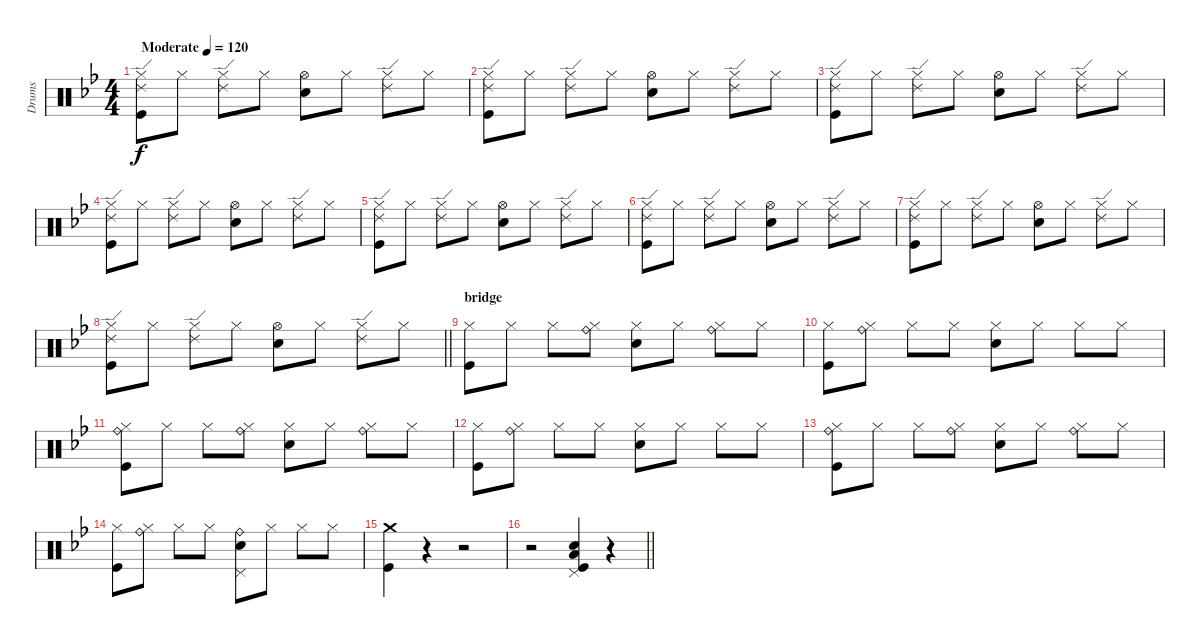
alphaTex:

\track ("Drums" "Drums") {instrument percussion}
\staff {score}
\articulation defaults
\ts (4 4)
\tempo (120 "Moderate")
\tempo 160
\tempo (120 "Moderate")
\clef neutral
\ks gminor
("Hi-Hat (closed)" "Ride (edge) 2" "Kick (hit)").8{dy f} "Hi-Hat (closed)".8 ("Hi-Hat (closed)" "Ride (edge) 2").8 "Hi-Hat (closed)".8 ("Hi-Hat (open)" "Electric Snare (hit)").8 "Hi-Hat (closed)".8 ("Hi-Hat (closed)" "Ride (edge) 2").8 "Hi-Hat (closed)".8 |
("Hi-Hat (closed)" "Ride (edge) 2" "Kick (hit)").8 "Hi-Hat (closed)".8 ("Hi-Hat (closed)" "Ride (edge) 2").8 "Hi-Hat (closed)".8 ("Hi-Hat (open)" "Electric Snare (hit)").8 "Hi-Hat (closed)".8 ("Hi-Hat (closed)" "Ride (edge) 2").8 "Hi-Hat (closed)".8 |
("Hi-Hat (closed)" "Ride (edge) 2" "Kick (hit)").8 "Hi-Hat (closed)".8 ("Hi-Hat (closed)" "Ride (edge) 2").8 "Hi-Hat (closed)".8 ("Hi-Hat (open)" "Electric Snare (hit)").8 "Hi-Hat (closed)".8 ("Hi-Hat (closed)" "Ride (edge) 2").8 "Hi-Hat (closed)".8 |
("Hi-Hat (closed)" "Ride (edge) 2" "Kick (hit)").8 "Hi-Hat (closed)".8 ("Hi-Hat (closed)" "Ride (edge) 2").8 "Hi-Hat (closed)".8 ("Hi-Hat (open)" "Electric Snare (hit)").8 "Hi-Hat (closed)".8 ("Hi-Hat (closed)" "Ride (edge) 2").8 "Hi-Hat (closed)".8 |
("Hi-Hat (closed)" "Ride (edge) 2" "Kick (hit)").8 "Hi-Hat (closed)".8 ("Hi-Hat (closed)" "Ride (edge) 2").8 "Hi-Hat (closed)".8 ("Hi-Hat (open)" "Electric Snare (hit)").8 "Hi-Hat (closed)".8 ("Hi-Hat (closed)" "Ride (edge) 2").8 "Hi-Hat (closed)".8 |
("Hi-Hat (closed)" "Ride (edge) 2" "Kick (hit)").8 "Hi-Hat (closed)".8 ("Hi-Hat (closed)" "Ride (edge) 2").8 "Hi-Hat (closed)".8 ("Hi-Hat (open)" "Electric Snare (hit)").8 "Hi-Hat (closed)".8 ("Hi-Hat (closed)" "Ride (edge) 2").8 "Hi-Hat (closed)".8 |
("Hi-Hat (closed)" "Ride (edge) 2" "Kick (hit)").8 "Hi-Hat (closed)".8 ("Hi-Hat (closed)" "Ride (edge) 2").8 "Hi-Hat (closed)".8 ("Hi-Hat (open)" "Electric Snare (hit)").8 "Hi-Hat (closed)".8 ("Hi-Hat (closed)" "Ride (edge) 2").8 "Hi-Hat (closed)".8 |
\barLineRight lightlight
("Hi-Hat (closed)" "Ride (edge) 2" "Kick (hit)").8 "Hi-Hat (closed)".8 ("Hi-Hat (closed)" "Ride (edge) 2").8 "Hi-Hat (closed)".8 ("Hi-Hat (open)" "Electric Snare (hit)").8 "Hi-Hat (closed)".8 ("Hi-Hat (closed)" "Ride (edge) 2").8 "Hi-Hat (closed)".8 |
\section ("" "bridge")
("Hi-Hat (closed)" "Kick (hit)").8 "Hi-Hat (closed)".8 "Hi-Hat (closed)".8 ("Ride (bell)" "Hi-Hat (closed)").8 ("Hi-Hat (closed)" "Electric Snare (hit)").8 "Hi-Hat (closed)".8 ("Ride (bell)" "Hi-Hat (closed)").8 "Hi-Hat (closed)".8 |
("Hi-Hat (closed)" "Kick (hit)").8 ("Ride (bell)" "Hi-Hat (closed)").8 "Hi-Hat (closed)".8 "Hi-Hat (closed)".8 ("Hi-Hat (closed)" "Electric Snare (hit)").8 "Hi-Hat (closed)".8 "Hi-Hat (closed)".8 "Hi-Hat (closed)".8 |
("Ride (bell)" "Hi-Hat (closed)" "Kick (hit)").8 "Hi-Hat (closed)".8 "Hi-Hat (closed)".8 ("Ride (bell)" "Hi-Hat (closed)").8 ("Hi-Hat (closed)" "Electric Snare (hit)").8 "Hi-Hat (closed)".8 ("Ride (bell)" "Hi-Hat (closed)").8 "Hi-Hat (closed)".8 |
("Hi-Hat (closed)" "Kick (hit)").8 ("Ride (bell)" "Hi-Hat (closed)").8 "Hi-Hat (closed)".8 "Hi-Hat (closed)".8 ("Hi-Hat (closed)" "Electric Snare (hit)").8 "Hi-Hat (closed)".8 "Hi-Hat (closed)".8 "Hi-Hat (closed)".8 |
("Ride (bell)" "Hi-Hat (closed)" "Kick (hit)").8 "Hi-Hat (closed)".8 "Hi-Hat (closed)".8 ("Ride (bell)" "Hi-Hat (closed)").8 ("Hi-Hat (closed)" "Electric Snare (hit)").8 "Hi-Hat (closed)".8 ("Ride (bell)" "Hi-Hat (closed)").8 "Hi-Hat (closed)".8 |
("Hi-Hat (closed)" "Kick (hit)").8 ("Ride (bell)" "Hi-Hat (closed)").8 "Hi-Hat (closed)".8 "Hi-Hat (closed)".8 ("Ride (bell)" "Pedal Hi-Hat (hit)" "Electric Snare (hit)").8 "Hi-Hat (closed)".8 "Hi-Hat (closed)".8 "Hi-Hat (closed)".8 |
("Crash medium (hit)" "Kick (hit)").4 r.4 r.2 |
\barLineRight lightlight
r.2 ("Pedal Hi-Hat (hit)" "Low Tom (hit)" "Electric Snare (hit)" "Kick (hit)").4 r.4
